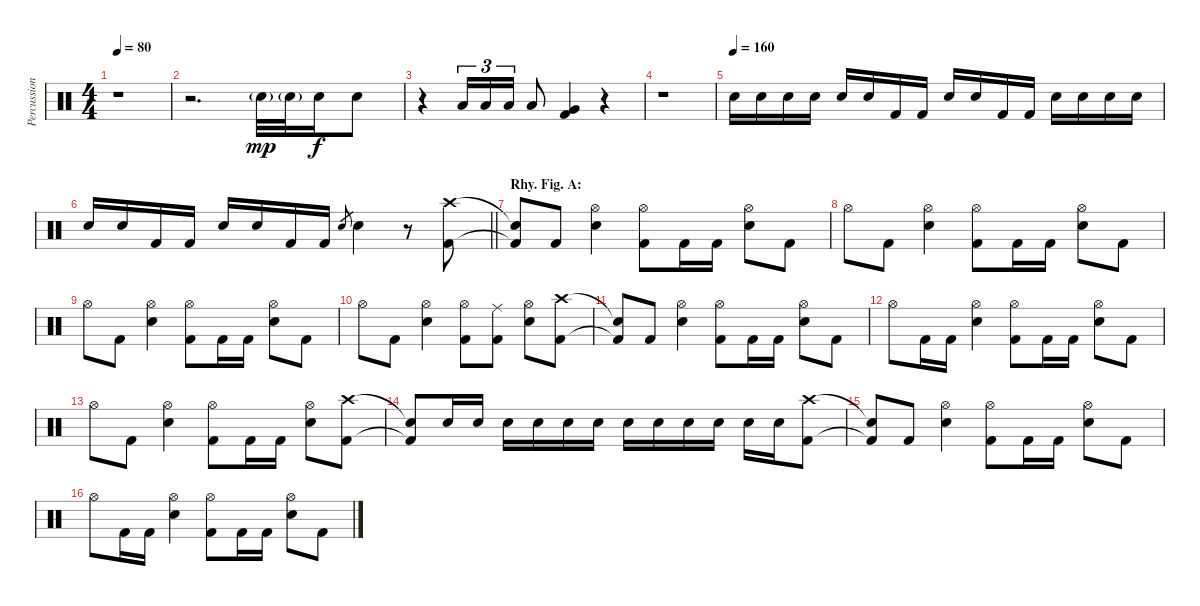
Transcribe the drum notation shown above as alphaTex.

\track ("Percussion" "Percussion") {instrument percussion}
\staff {score}
\articulation defaults
\ts (4 4)
\tempo 80
\tempo 120
\tempo 80
\clef neutral
\ks c
r.1{dy mp} |
r.2{d} "Electric Snare (hit)"{g}.32 "Electric Snare (hit)"{g}.32 "Electric Snare (hit)".16{dy f} "Electric Snare (hit)".8 |
r.4 "Low Tom (hit)".16{tu (3 2)} "Low Tom (hit)".16{tu (3 2)} "Low Tom (hit)".16{tu (3 2)} "Low Tom (hit)".8 ("Very Low Tom (hit)" "Kick (hit) 2").4 r.4 |
r.1 |
\tempo (160)
"Electric Snare (hit)".16 "Electric Snare (hit)".16 "Electric Snare (hit)".16 "Electric Snare (hit)".16 "Electric Snare (hit)".16 "Electric Snare (hit)".16 "Kick (hit) 2".16 "Kick (hit) 2".16 "Electric Snare (hit)".16 "Electric Snare (hit)".16 "Kick (hit) 2".16 "Kick (hit) 2".16 "Electric Snare (hit)".16 "Electric Snare (hit)".16 "Electric Snare (hit)".16 "Electric Snare (hit)".16 |
\barLineRight lightlight "Electric Snare (hit)".16 "Electric Snare (hit)".16 "Kick (hit) 2".16 "Kick (hit) 2".16 "Electric Snare (hit)".16 "Electric Snare (hit)".16 "Kick (hit) 2".16 "Kick (hit) 2".16 "Electric Snare (hit)".8{gr} "Electric Snare (hit)".4
r.8 ("Crash high (hit)" "Kick (hit) 2").8 |
\section ("" "Rhy. Fig. A:")
("Snare (hit)"{t} "Kick (hit) 2"{t}).8 "Kick (hit) 2".8 ("Hi-Hat (open)" "Electric Snare (hit)").4 ("Hi-Hat (open)" "Kick (hit) 2").8 "Kick (hit) 2".16 "Kick (hit) 2".16 ("Hi-Hat (open)" "Electric Snare (hit)").8 "Kick (hit) 2".8 |
"Hi-Hat (open)".8 "Kick (hit) 2".8 ("Hi-Hat (open)" "Electric Snare (hit)").4 ("Hi-Hat (open)" "Kick (hit) 2").8 "Kick (hit) 2".16 "Kick (hit) 2".16 ("Hi-Hat (open)" "Electric Snare (hit)").8 "Kick (hit) 2".8 |
"Hi-Hat (open)".8 "Kick (hit) 2".8 ("Hi-Hat (open)" "Electric Snare (hit)").4 ("Hi-Hat (open)" "Kick (hit) 2").8 "Kick (hit) 2".16 "Kick (hit) 2".16 ("Hi-Hat (open)" "Electric Snare (hit)").8 "Kick (hit) 2".8 |
"Hi-Hat (open)".8 "Kick (hit) 2".8 ("Hi-Hat (open)" "Electric Snare (hit)").4 ("Hi-Hat (open)" "Kick (hit) 2").8 ("Ride (middle)" "Kick (hit) 2").8 ("Hi-Hat (open)" "Electric Snare (hit)").8 ("Crash high (hit)" "Kick (hit) 2").8 |
("Snare (hit)"{t} "Kick (hit) 2"{t}).8 "Kick (hit) 2".8 ("Hi-Hat (open)" "Electric Snare (hit)").4 ("Hi-Hat (open)" "Kick (hit) 2").8 "Kick (hit) 2".16 "Kick (hit) 2".16 ("Hi-Hat (open)" "Electric Snare (hit)").8 "Kick (hit) 2".8 |
"Hi-Hat (open)".8 "Kick (hit) 2".16 "Kick (hit) 2".16 ("Hi-Hat (open)" "Electric Snare (hit)").4 ("Hi-Hat (open)" "Kick (hit) 2").8 "Kick (hit) 2".16 "Kick (hit) 2".16 ("Hi-Hat (open)" "Electric Snare (hit)").8 "Kick (hit) 2".8 |
"Hi-Hat (open)".8 "Kick (hit) 2".8 ("Hi-Hat (open)" "Electric Snare (hit)").4 ("Hi-Hat (open)" "Kick (hit) 2").8 "Kick (hit) 2".16 "Kick (hit) 2".16 ("Hi-Hat (open)" "Electric Snare (hit)").8 ("Crash high (hit)" "Kick (hit) 2").8 |
("Snare (hit)"{t} "Kick (hit) 2"{t}).8 "Electric Snare (hit)".16 "Electric Snare (hit)".16 "Electric Snare (hit)".16 "Electric Snare (hit)".16 "Electric Snare (hit)".16 "Electric Snare (hit)".16 "Electric Snare (hit)".16 "Electric Snare (hit)".16 "Electric Snare (hit)".16 "Electric Snare (hit)".16 "Electric Snare (hit)".16 "Electric Snare (hit)".16 ("Crash high (hit)" "Kick (hit) 2").8 |
("Snare (hit)"{t} "Kick (hit) 2"{t}).8 "Kick (hit) 2".8 ("Hi-Hat (open)" "Electric Snare (hit)").4 ("Hi-Hat (open)" "Kick (hit) 2").8 "Kick (hit) 2".16 "Kick (hit) 2".16 ("Hi-Hat (open)" "Electric Snare (hit)").8 "Kick (hit) 2".8 |
"Hi-Hat (open)".8 "Kick (hit) 2".16 "Kick (hit) 2".16 ("Hi-Hat (open)" "Electric Snare (hit)").4 ("Hi-Hat (open)" "Kick (hit) 2").8 "Kick (hit) 2".16 "Kick (hit) 2".16 ("Hi-Hat (open)" "Electric Snare (hit)").8 "Kick (hit) 2".8
